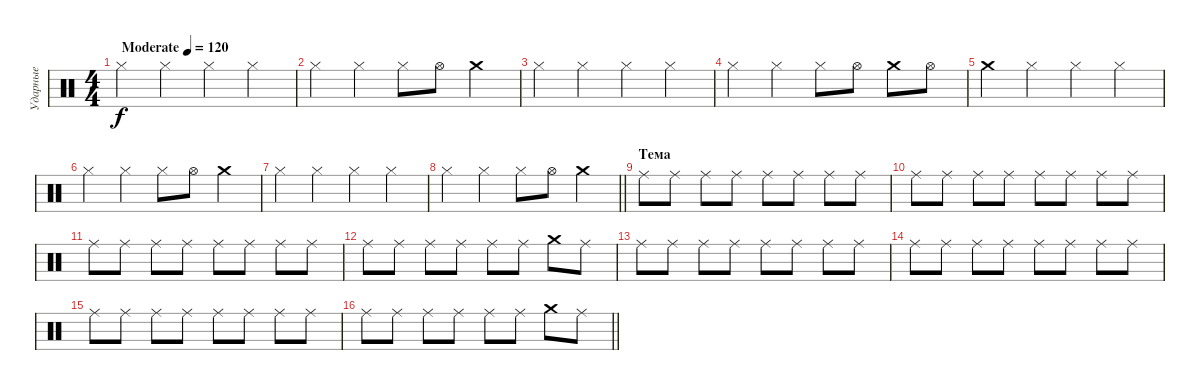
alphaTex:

\track ("Ударные" "Ударные") {instrument percussion}
\staff {score}
\articulation defaults
\ts (4 4)
\tempo (120 "Moderate")
\clef neutral
\ks c "Hi-Hat (closed)".4{dy f} "Hi-Hat (closed)".4 "Hi-Hat (closed)".4 "Hi-Hat (closed)".4
|
"Hi-Hat (closed)".4 "Hi-Hat (closed)".4 "Hi-Hat (closed)".8 "Hi-Hat (open)".8 "Crash medium (hit)".4 |
"Hi-Hat (closed)".4 "Hi-Hat (closed)".4 "Hi-Hat (closed)".4 "Hi-Hat (closed)".4 |
"Hi-Hat (closed)".4 "Hi-Hat (closed)".4 "Hi-Hat (closed)".8 "Hi-Hat (open)".8 "Crash medium (hit)".8 "Hi-Hat (open)".8 |
"Crash medium (hit)".4 "Hi-Hat (closed)".4 "Hi-Hat (closed)".4 "Hi-Hat (closed)".4 |
"Hi-Hat (closed)".4 "Hi-Hat (closed)".4 "Hi-Hat (closed)".8 "Hi-Hat (open)".8 "Crash medium (hit)".4 |
"Hi-Hat (closed)".4 "Hi-Hat (closed)".4 "Hi-Hat (closed)".4 "Hi-Hat (closed)".4 |
\barLineRight lightlight "Hi-Hat (closed)".4 "Hi-Hat (closed)".4 "Hi-Hat (closed)".8 "Hi-Hat (open)".8 "Crash medium (hit)".4
|
\section ("" "Тема")
"Ride (middle)".8 "Ride (middle)".8 "Ride (middle)".8 "Ride (middle)".8 "Ride (middle)".8 "Ride (middle)".8 "Ride (middle)".8 "Ride (middle)".8 |
"Ride (middle)".8 "Ride (middle)".8 "Ride (middle)".8 "Ride (middle)".8 "Ride (middle)".8 "Ride (middle)".8 "Ride (middle)".8 "Ride (middle)".8 |
"Ride (middle)".8 "Ride (middle)".8 "Ride (middle)".8 "Ride (middle)".8 "Ride (middle)".8 "Ride (middle)".8 "Ride (middle)".8 "Ride (middle)".8 |
"Ride (middle)".8 "Ride (middle)".8 "Ride (middle)".8 "Ride (middle)".8 "Ride (middle)".8 "Ride (middle)".8 "Crash medium (hit)".8 "Ride (middle)".8 |
"Ride (middle)".8 "Ride (middle)".8 "Ride (middle)".8 "Ride (middle)".8 "Ride (middle)".8 "Ride (middle)".8 "Ride (middle)".8 "Ride (middle)".8 |
"Ride (middle)".8 "Ride (middle)".8 "Ride (middle)".8 "Ride (middle)".8 "Ride (middle)".8 "Ride (middle)".8 "Ride (middle)".8 "Ride (middle)".8 |
"Ride (middle)".8 "Ride (middle)".8 "Ride (middle)".8 "Ride (middle)".8 "Ride (middle)".8 "Ride (middle)".8 "Ride (middle)".8 "Ride (middle)".8 |
\barLineRight lightlight "Ride (middle)".8 "Ride (middle)".8 "Ride (middle)".8 "Ride (middle)".8 "Ride (middle)".8 "Ride (middle)".8 "Crash medium (hit)".8 "Ride (middle)".8
